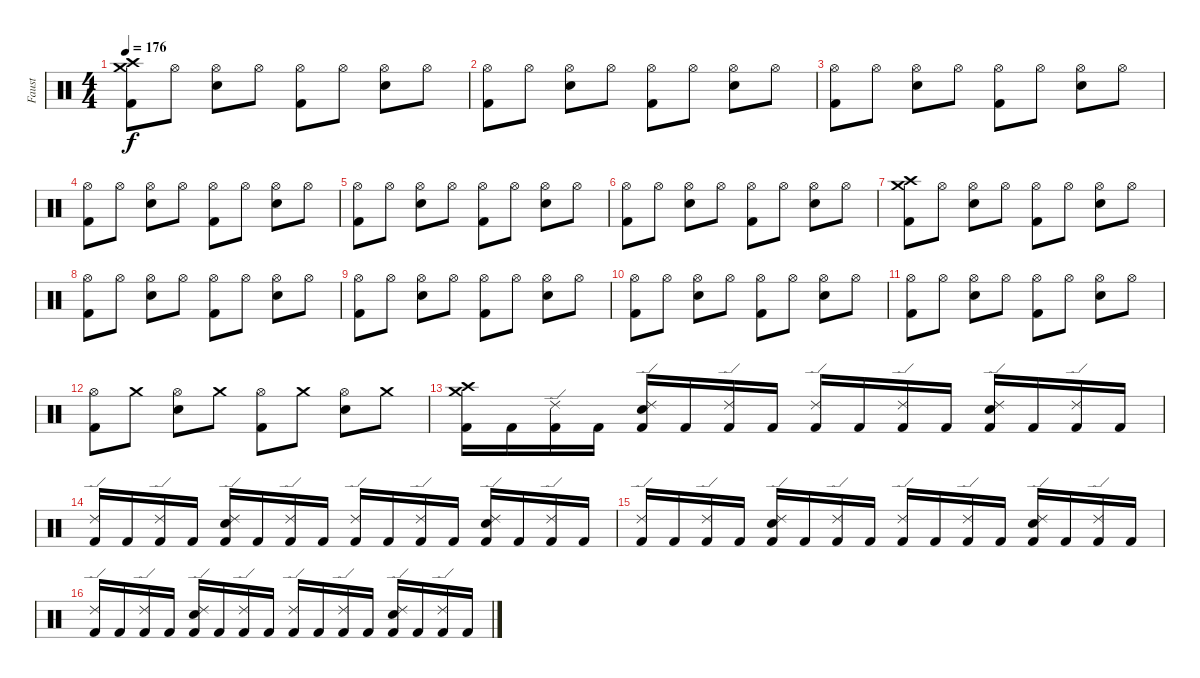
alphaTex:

\track ("Faust" "Faust") {instrument percussion}
\staff {score}
\articulation defaults
\ts (4 4)
\tempo 176
\clef neutral
\ks c
("Crash medium (hit)" "Crash high (hit)" "Kick (hit) 2").8{dy f} "Hi-Hat (open)".8 ("Hi-Hat (open)" "Electric Snare (hit)").8 "Hi-Hat (open)".8 ("Hi-Hat (open)" "Kick (hit) 2").8 "Hi-Hat (open)".8 ("Hi-Hat (open)" "Electric Snare (hit)").8 "Hi-Hat (open)".8 |
("Hi-Hat (open)" "Kick (hit) 2").8 "Hi-Hat (open)".8 ("Hi-Hat (open)" "Electric Snare (hit)").8 "Hi-Hat (open)".8 ("Hi-Hat (open)" "Kick (hit) 2").8 "Hi-Hat (open)".8 ("Hi-Hat (open)" "Electric Snare (hit)").8 "Hi-Hat (open)".8 |
("Hi-Hat (open)" "Kick (hit) 2").8 "Hi-Hat (open)".8 ("Hi-Hat (open)" "Electric Snare (hit)").8 "Hi-Hat (open)".8 ("Hi-Hat (open)" "Kick (hit) 2").8 "Hi-Hat (open)".8 ("Hi-Hat (open)" "Electric Snare (hit)").8 "Hi-Hat (open)".8 |
("Hi-Hat (open)" "Kick (hit) 2").8 "Hi-Hat (open)".8 ("Hi-Hat (open)" "Electric Snare (hit)").8 "Hi-Hat (open)".8 ("Hi-Hat (open)" "Kick (hit) 2").8 "Hi-Hat (open)".8 ("Hi-Hat (open)" "Electric Snare (hit)").8 "Hi-Hat (open)".8 |
("Hi-Hat (open)" "Kick (hit) 2").8 "Hi-Hat (open)".8 ("Hi-Hat (open)" "Electric Snare (hit)").8 "Hi-Hat (open)".8 ("Hi-Hat (open)" "Kick (hit) 2").8 "Hi-Hat (open)".8 ("Hi-Hat (open)" "Electric Snare (hit)").8 "Hi-Hat (open)".8 |
("Hi-Hat (open)" "Kick (hit) 2").8 "Hi-Hat (open)".8 ("Hi-Hat (open)" "Electric Snare (hit)").8 "Hi-Hat (open)".8 ("Hi-Hat (open)" "Kick (hit) 2").8 "Hi-Hat (open)".8 ("Hi-Hat (open)" "Electric Snare (hit)").8 "Hi-Hat (open)".8 |
("Crash medium (hit)" "Crash high (hit)" "Kick (hit) 2").8 "Hi-Hat (open)".8 ("Hi-Hat (open)" "Electric Snare (hit)").8 "Hi-Hat (open)".8 ("Hi-Hat (open)" "Kick (hit) 2").8 "Hi-Hat (open)".8 ("Hi-Hat (open)" "Electric Snare (hit)").8 "Hi-Hat (open)".8 |
("Hi-Hat (open)" "Kick (hit) 2").8 "Hi-Hat (open)".8 ("Hi-Hat (open)" "Electric Snare (hit)").8 "Hi-Hat (open)".8 ("Hi-Hat (open)" "Kick (hit) 2").8 "Hi-Hat (open)".8 ("Hi-Hat (open)" "Electric Snare (hit)").8 "Hi-Hat (open)".8 |
("Hi-Hat (open)" "Kick (hit) 2").8 "Hi-Hat (open)".8 ("Hi-Hat (open)" "Electric Snare (hit)").8 "Hi-Hat (open)".8 ("Hi-Hat (open)" "Kick (hit) 2").8 "Hi-Hat (open)".8 ("Hi-Hat (open)" "Electric Snare (hit)").8 "Hi-Hat (open)".8 |
("Hi-Hat (open)" "Kick (hit) 2").8 "Hi-Hat (open)".8 ("Hi-Hat (open)" "Electric Snare (hit)").8 "Hi-Hat (open)".8 ("Hi-Hat (open)" "Kick (hit) 2").8 "Hi-Hat (open)".8 ("Hi-Hat (open)" "Electric Snare (hit)").8 "Hi-Hat (open)".8 |
("Hi-Hat (open)" "Kick (hit) 2").8 "Hi-Hat (open)".8 ("Hi-Hat (open)" "Electric Snare (hit)").8 "Hi-Hat (open)".8 ("Hi-Hat (open)" "Kick (hit) 2").8 "Hi-Hat (open)".8 ("Hi-Hat (open)" "Electric Snare (hit)").8 "Hi-Hat (open)".8 |
("Hi-Hat (open)" "Kick (hit) 2").8 "Crash medium (hit)".8 ("Hi-Hat (open)" "Electric Snare (hit)").8 "Crash medium (hit)".8 ("Hi-Hat (open)" "Kick (hit) 2").8 "Crash medium (hit)".8 ("Hi-Hat (open)" "Electric Snare (hit)").8 "Crash medium (hit)".8 |
("Crash high (hit)" "Crash medium (hit)" "Kick (hit) 2").16 "Kick (hit) 2".16 ("Ride (edge) 2" "Kick (hit) 2").16 "Kick (hit) 2".16 ("Ride (edge) 2" "Electric Snare (hit)" "Kick (hit) 2").16 "Kick (hit) 2".16 ("Ride (edge) 2" "Kick (hit) 2").16 "Kick (hit) 2".16 ("Ride (edge) 2" "Kick (hit) 2").16 "Kick (hit) 2".16 ("Ride (edge) 2" "Kick (hit) 2").16 "Kick (hit) 2".16 ("Ride (edge) 2" "Electric Snare (hit)" "Kick (hit) 2").16 "Kick (hit) 2".16 ("Ride (edge) 2" "Kick (hit) 2").16 "Kick (hit) 2".16 |
("Ride (edge) 2" "Kick (hit) 2").16 "Kick (hit) 2".16 ("Ride (edge) 2" "Kick (hit) 2").16 "Kick (hit) 2".16 ("Ride (edge) 2" "Electric Snare (hit)" "Kick (hit) 2").16 "Kick (hit) 2".16 ("Ride (edge) 2" "Kick (hit) 2").16 "Kick (hit) 2".16 ("Ride (edge) 2" "Kick (hit) 2").16 "Kick (hit) 2".16 ("Ride (edge) 2" "Kick (hit) 2").16 "Kick (hit) 2".16 ("Ride (edge) 2" "Electric Snare (hit)" "Kick (hit) 2").16 "Kick (hit) 2".16 ("Ride (edge) 2" "Kick (hit) 2").16 "Kick (hit) 2".16 |
("Ride (edge) 2" "Kick (hit) 2").16 "Kick (hit) 2".16 ("Ride (edge) 2" "Kick (hit) 2").16 "Kick (hit) 2".16 ("Ride (edge) 2" "Electric Snare (hit)" "Kick (hit) 2").16 "Kick (hit) 2".16 ("Ride (edge) 2" "Kick (hit) 2").16 "Kick (hit) 2".16 ("Ride (edge) 2" "Kick (hit) 2").16 "Kick (hit) 2".16 ("Ride (edge) 2" "Kick (hit) 2").16 "Kick (hit) 2".16 ("Ride (edge) 2" "Electric Snare (hit)" "Kick (hit) 2").16 "Kick (hit) 2".16 ("Ride (edge) 2" "Kick (hit) 2").16 "Kick (hit) 2".16 |
("Ride (edge) 2" "Kick (hit) 2").16 "Kick (hit) 2".16 ("Ride (edge) 2" "Kick (hit) 2").16 "Kick (hit) 2".16 ("Ride (edge) 2" "Electric Snare (hit)" "Kick (hit) 2").16 "Kick (hit) 2".16 ("Ride (edge) 2" "Kick (hit) 2").16 "Kick (hit) 2".16 ("Ride (edge) 2" "Kick (hit) 2").16 "Kick (hit) 2".16 ("Ride (edge) 2" "Kick (hit) 2").16 "Kick (hit) 2".16 ("Ride (edge) 2" "Electric Snare (hit)" "Kick (hit) 2").16 "Kick (hit) 2".16 ("Ride (edge) 2" "Kick (hit) 2").16 "Kick (hit) 2".16
